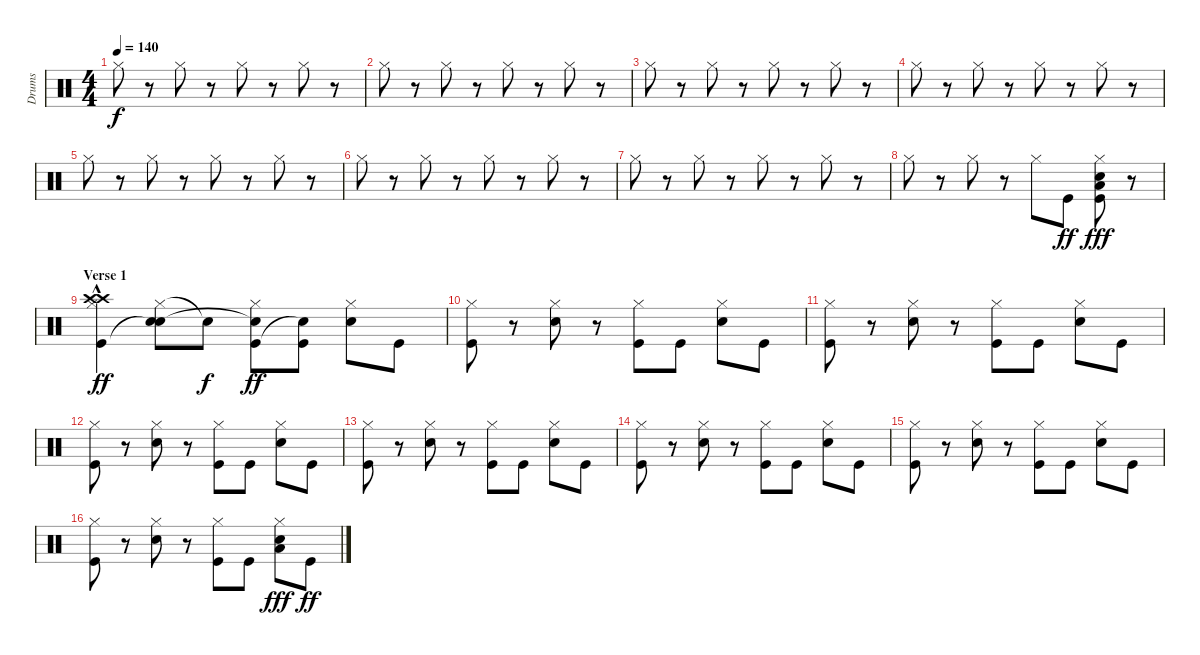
\track ("Drums" "Drums") {instrument percussion}
\staff {score}
\articulation defaults
\ts (4 4)
\tempo 140
\clef neutral
\ks c "Hi-Hat (closed)".8{dy f volume 12}
r.8 "Hi-Hat (closed)".8 r.8 "Hi-Hat (closed)".8 r.8 "Hi-Hat (closed)".8 r.8 |
"Hi-Hat (closed)".8 r.8 "Hi-Hat (closed)".8 r.8 "Hi-Hat (closed)".8 r.8 "Hi-Hat (closed)".8 r.8 |
"Hi-Hat (closed)".8 r.8 "Hi-Hat (closed)".8 r.8 "Hi-Hat (closed)".8 r.8 "Hi-Hat (closed)".8 r.8 |
"Hi-Hat (closed)".8 r.8 "Hi-Hat (closed)".8 r.8 "Hi-Hat (closed)".8 r.8 "Hi-Hat (closed)".8 r.8 |
"Hi-Hat (closed)".8 r.8 "Hi-Hat (closed)".8 r.8 "Hi-Hat (closed)".8 r.8 "Hi-Hat (closed)".8 r.8 |
"Hi-Hat (closed)".8 r.8 "Hi-Hat (closed)".8 r.8 "Hi-Hat (closed)".8 r.8 "Hi-Hat (closed)".8 r.8 |
"Hi-Hat (closed)".8 r.8 "Hi-Hat (closed)".8 r.8 "Hi-Hat (closed)".8 r.8 "Hi-Hat (closed)".8 r.8 |
"Hi-Hat (closed)".8 r.8 "Hi-Hat (closed)".8 r.8 "Hi-Hat (closed)".8 "Kick (hit)".8{dy ff} ("Kick (hit)" "Snare (hit) 2" "Low Floor Tom (hit)" "Hi-Hat (closed)").8{dy fff} r.8 |
\section ("" "Verse 1")
("Crash high (hit)"{hac} "Hi-Hat (closed)" "Kick (hit)" "Crash high (hit)").4{dy ff} ("Hi-Hat (closed)" "Snare (hit) 2" "Snare (hit)"{t}).8 "Snare (hit)"{t}.8{dy f} ("Hi-Hat (closed)" "Kick (hit)" "Snare (hit)"{t}).8{dy ff} ("Kick (hit)" "Snare (hit)"{t}).8 ("Hi-Hat (closed)" "Snare (hit) 2").8 "Kick (hit)".8 |
("Hi-Hat (closed)" "Kick (hit)").8 r.8 ("Hi-Hat (closed)" "Snare (hit) 2").8 r.8 ("Hi-Hat (closed)" "Kick (hit)").8 "Kick (hit)".8 ("Hi-Hat (closed)" "Snare (hit) 2").8 "Kick (hit)".8 |
("Hi-Hat (closed)" "Kick (hit)").8 r.8 ("Hi-Hat (closed)" "Snare (hit) 2").8 r.8 ("Hi-Hat (closed)" "Kick (hit)").8 "Kick (hit)".8 ("Hi-Hat (closed)" "Snare (hit) 2").8 "Kick (hit)".8 |
("Hi-Hat (closed)" "Kick (hit)").8 r.8 ("Hi-Hat (closed)" "Snare (hit) 2").8 r.8 ("Hi-Hat (closed)" "Kick (hit)").8 "Kick (hit)".8 ("Hi-Hat (closed)" "Snare (hit) 2").8 "Kick (hit)".8 |
("Kick (hit)" "Hi-Hat (closed)").8 r.8 ("Hi-Hat (closed)" "Snare (hit) 2").8 r.8 ("Kick (hit)" "Hi-Hat (closed)").8 "Kick (hit)".8 ("Hi-Hat (closed)" "Snare (hit) 2").8 "Kick (hit)".8 |
("Hi-Hat (closed)" "Kick (hit)").8 r.8 ("Hi-Hat (closed)" "Snare (hit) 2").8 r.8 ("Hi-Hat (closed)" "Kick (hit)").8 "Kick (hit)".8 ("Hi-Hat (closed)" "Snare (hit) 2").8 "Kick (hit)".8 |
("Hi-Hat (closed)" "Kick (hit)").8 r.8 ("Hi-Hat (closed)" "Snare (hit) 2").8 r.8 ("Hi-Hat (closed)" "Kick (hit)").8 "Kick (hit)".8 ("Hi-Hat (closed)" "Snare (hit) 2").8 "Kick (hit)".8 |
("Hi-Hat (closed)" "Kick (hit)").8 r.8 ("Hi-Hat (closed)" "Snare (hit) 2").8 r.8 ("Hi-Hat (closed)" "Kick (hit)").8 "Kick (hit)".8 ("Snare (hit) 2" "Hi-Hat (closed)" "Low Floor Tom (hit)").8{dy fff} "Kick (hit)".8{dy ff}
